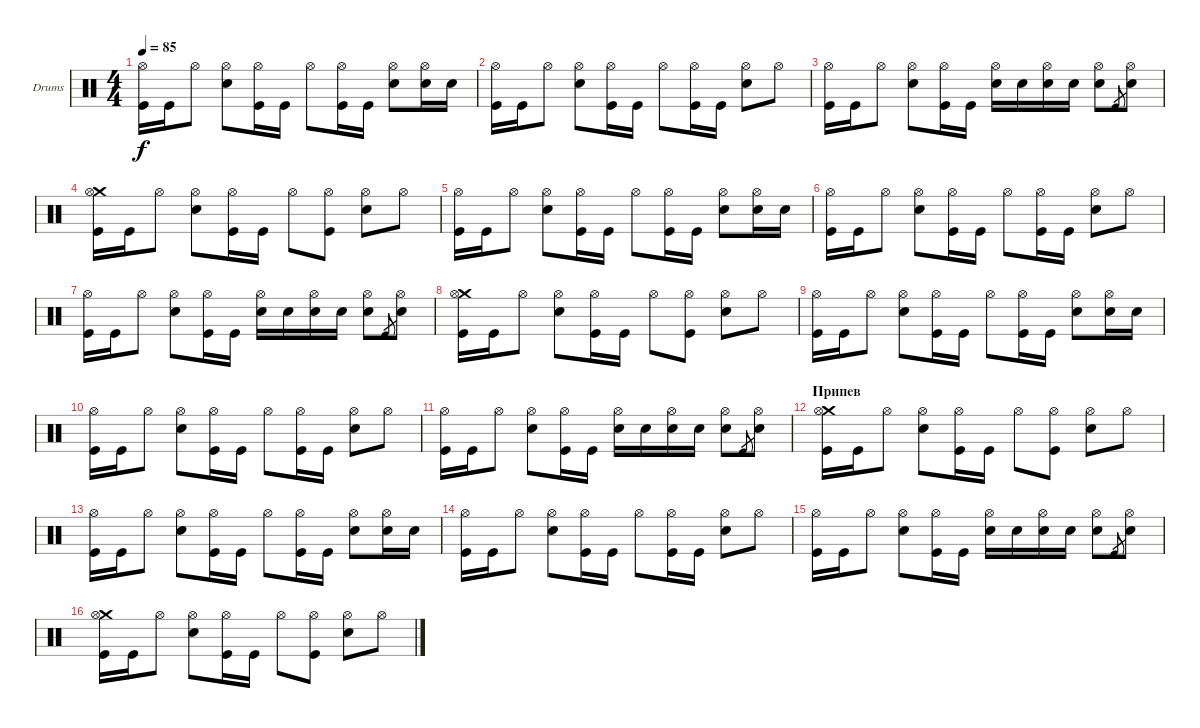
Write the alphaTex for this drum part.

\defaultSystemsLayout 4
\bracketExtendMode groupsimilarinstruments
\firstSystemTrackNameOrientation horizontal
\otherSystemsTrackNameOrientation horizontal
\track ("Drumkit" "Drums") {instrument percussion}
\staff {score}
\articulation defaults
\ts (4 4)
\tempo 85
\clef neutral
\ks c
("Kick (hit)" "Hi-Hat (open)").16{dy f} "Kick (hit)".16 "Hi-Hat (open)".8 ("Snare (hit) 2" "Hi-Hat (open)").8 ("Kick (hit)" "Hi-Hat (open)").16 "Kick (hit)".16 "Hi-Hat (open)".8 ("Kick (hit)" "Hi-Hat (open)").16 "Kick (hit)".16 ("Snare (hit) 2" "Hi-Hat (open)").8 ("Hi-Hat (open)" "Snare (hit) 2").16 "Snare (hit) 2".16 |
("Kick (hit)" "Hi-Hat (open)").16 "Kick (hit)".16 "Hi-Hat (open)".8 ("Snare (hit) 2" "Hi-Hat (open)").8 ("Kick (hit)" "Hi-Hat (open)").16 "Kick (hit)".16 "Hi-Hat (open)".8 ("Kick (hit)" "Hi-Hat (open)").16 "Kick (hit)".16 ("Snare (hit) 2" "Hi-Hat (open)").8 "Hi-Hat (open)".8 |
("Kick (hit)" "Hi-Hat (open)").16 "Kick (hit)".16 "Hi-Hat (open)".8 ("Snare (hit) 2" "Hi-Hat (open)").8 ("Kick (hit)" "Hi-Hat (open)").16 "Kick (hit)".16 ("Snare (hit) 2" "Hi-Hat (open)").16 "Snare (hit) 2".16 ("Snare (hit) 2" "Hi-Hat (open)").16 "Snare (hit) 2".16 ("Snare (hit) 2" "Hi-Hat (open)").8 "Kick (hit)".8{gr} ("Snare (hit) 2" "Hi-Hat (open)").8 |
("Kick (hit)" "Crash medium (hit)" "Hi-Hat (open)").16 "Kick (hit)".16 "Hi-Hat (open)".8 ("Snare (hit) 2" "Hi-Hat (open)").8 ("Kick (hit)" "Hi-Hat (open)").16 "Kick (hit)".16 "Hi-Hat (open)".8 ("Kick (hit)" "Hi-Hat (open)").8 ("Snare (hit) 2" "Hi-Hat (open)").8 "Hi-Hat (open)".8 |
("Kick (hit)" "Hi-Hat (open)").16 "Kick (hit)".16 "Hi-Hat (open)".8 ("Snare (hit) 2" "Hi-Hat (open)").8 ("Kick (hit)" "Hi-Hat (open)").16 "Kick (hit)".16 "Hi-Hat (open)".8 ("Kick (hit)" "Hi-Hat (open)").16 "Kick (hit)".16 ("Snare (hit) 2" "Hi-Hat (open)").8 ("Hi-Hat (open)" "Snare (hit) 2").16 "Snare (hit) 2".16 |
("Kick (hit)" "Hi-Hat (open)").16 "Kick (hit)".16 "Hi-Hat (open)".8 ("Snare (hit) 2" "Hi-Hat (open)").8 ("Kick (hit)" "Hi-Hat (open)").16 "Kick (hit)".16 "Hi-Hat (open)".8 ("Kick (hit)" "Hi-Hat (open)").16 "Kick (hit)".16 ("Snare (hit) 2" "Hi-Hat (open)").8 "Hi-Hat (open)".8 |
("Kick (hit)" "Hi-Hat (open)").16 "Kick (hit)".16 "Hi-Hat (open)".8 ("Snare (hit) 2" "Hi-Hat (open)").8 ("Kick (hit)" "Hi-Hat (open)").16 "Kick (hit)".16 ("Snare (hit) 2" "Hi-Hat (open)").16 "Snare (hit) 2".16 ("Snare (hit) 2" "Hi-Hat (open)").16 "Snare (hit) 2".16 ("Snare (hit) 2" "Hi-Hat (open)").8 "Kick (hit)".8{gr} ("Snare (hit) 2" "Hi-Hat (open)").8 |
("Kick (hit)" "Crash medium (hit)" "Hi-Hat (open)").16 "Kick (hit)".16 "Hi-Hat (open)".8 ("Snare (hit) 2" "Hi-Hat (open)").8 ("Kick (hit)" "Hi-Hat (open)").16 "Kick (hit)".16 "Hi-Hat (open)".8 ("Kick (hit)" "Hi-Hat (open)").8 ("Snare (hit) 2" "Hi-Hat (open)").8 "Hi-Hat (open)".8 |
("Kick (hit)" "Hi-Hat (open)").16 "Kick (hit)".16 "Hi-Hat (open)".8 ("Snare (hit) 2" "Hi-Hat (open)").8 ("Kick (hit)" "Hi-Hat (open)").16 "Kick (hit)".16 "Hi-Hat (open)".8 ("Kick (hit)" "Hi-Hat (open)").16 "Kick (hit)".16 ("Snare (hit) 2" "Hi-Hat (open)").8 ("Hi-Hat (open)" "Snare (hit) 2").16 "Snare (hit) 2".16 |
("Kick (hit)" "Hi-Hat (open)").16 "Kick (hit)".16 "Hi-Hat (open)".8 ("Snare (hit) 2" "Hi-Hat (open)").8 ("Kick (hit)" "Hi-Hat (open)").16 "Kick (hit)".16 "Hi-Hat (open)".8 ("Kick (hit)" "Hi-Hat (open)").16 "Kick (hit)".16 ("Snare (hit) 2" "Hi-Hat (open)").8 "Hi-Hat (open)".8 |
("Kick (hit)" "Hi-Hat (open)").16 "Kick (hit)".16 "Hi-Hat (open)".8 ("Snare (hit) 2" "Hi-Hat (open)").8 ("Kick (hit)" "Hi-Hat (open)").16 "Kick (hit)".16 ("Snare (hit) 2" "Hi-Hat (open)").16 "Snare (hit) 2".16 ("Snare (hit) 2" "Hi-Hat (open)").16 "Snare (hit) 2".16 ("Snare (hit) 2" "Hi-Hat (open)").8 "Kick (hit)".8{gr} ("Snare (hit) 2" "Hi-Hat (open)").8 |
\section ("" "Припев")
("Kick (hit)" "Crash medium (hit)" "Hi-Hat (open)").16 "Kick (hit)".16 "Hi-Hat (open)".8 ("Snare (hit) 2" "Hi-Hat (open)").8 ("Kick (hit)" "Hi-Hat (open)").16 "Kick (hit)".16 "Hi-Hat (open)".8 ("Kick (hit)" "Hi-Hat (open)").8 ("Snare (hit) 2" "Hi-Hat (open)").8 "Hi-Hat (open)".8 |
("Kick (hit)" "Hi-Hat (open)").16 "Kick (hit)".16 "Hi-Hat (open)".8 ("Snare (hit) 2" "Hi-Hat (open)").8 ("Kick (hit)" "Hi-Hat (open)").16 "Kick (hit)".16 "Hi-Hat (open)".8 ("Kick (hit)" "Hi-Hat (open)").16 "Kick (hit)".16 ("Snare (hit) 2" "Hi-Hat (open)").8 ("Hi-Hat (open)" "Snare (hit) 2").16 "Snare (hit) 2".16 |
("Kick (hit)" "Hi-Hat (open)").16 "Kick (hit)".16 "Hi-Hat (open)".8 ("Snare (hit) 2" "Hi-Hat (open)").8 ("Kick (hit)" "Hi-Hat (open)").16 "Kick (hit)".16 "Hi-Hat (open)".8 ("Kick (hit)" "Hi-Hat (open)").16 "Kick (hit)".16 ("Snare (hit) 2" "Hi-Hat (open)").8 "Hi-Hat (open)".8 |
("Kick (hit)" "Hi-Hat (open)").16 "Kick (hit)".16 "Hi-Hat (open)".8 ("Snare (hit) 2" "Hi-Hat (open)").8 ("Kick (hit)" "Hi-Hat (open)").16 "Kick (hit)".16 ("Snare (hit) 2" "Hi-Hat (open)").16 "Snare (hit) 2".16 ("Snare (hit) 2" "Hi-Hat (open)").16 "Snare (hit) 2".16 ("Snare (hit) 2" "Hi-Hat (open)").8 "Kick (hit)".8{gr} ("Snare (hit) 2" "Hi-Hat (open)").8 |
("Kick (hit)" "Crash medium (hit)" "Hi-Hat (open)").16 "Kick (hit)".16 "Hi-Hat (open)".8 ("Snare (hit) 2" "Hi-Hat (open)").8 ("Kick (hit)" "Hi-Hat (open)").16 "Kick (hit)".16 "Hi-Hat (open)".8 ("Kick (hit)" "Hi-Hat (open)").8 ("Snare (hit) 2" "Hi-Hat (open)").8 "Hi-Hat (open)".8
